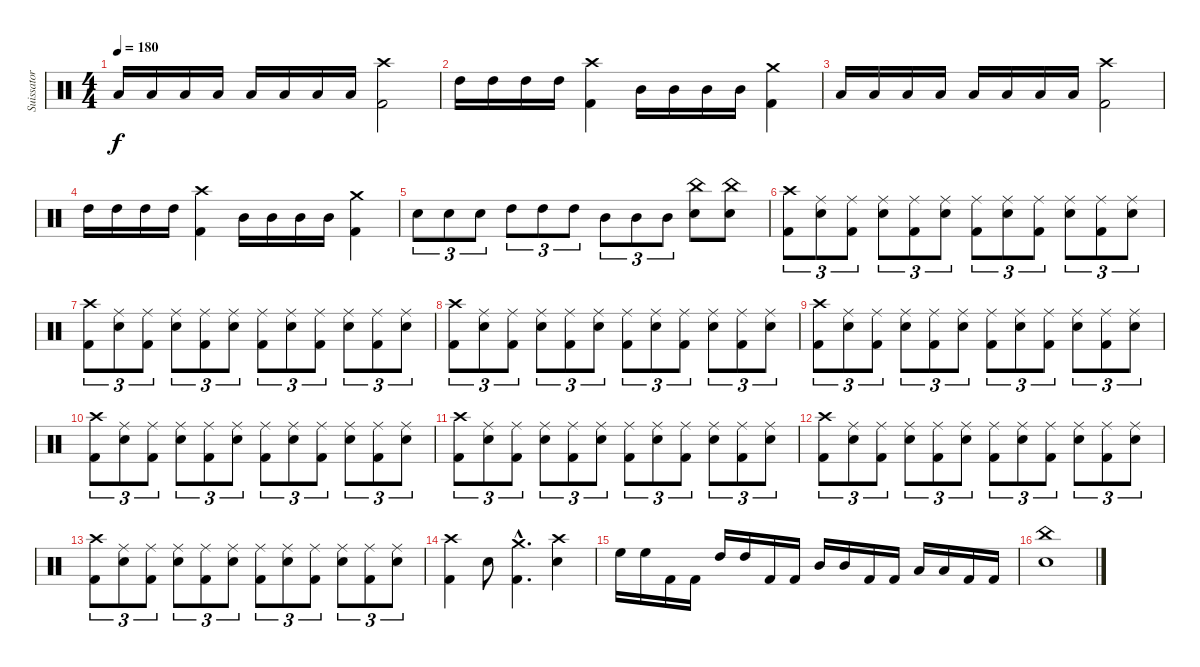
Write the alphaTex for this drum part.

\track ("Suissator" "Suissator") {instrument percussion}
\staff {score}
\articulation defaults
\ts (4 4)
\tempo 180
\clef neutral
\ks c "Low Tom (hit)".16{dy f} "Low Tom (hit)".16 "Low Tom (hit)".16 "Low Tom (hit)".16 "Low Tom (hit)".16 "Low Tom (hit)".16 "Low Tom (hit)".16 "Low Tom (hit)".16
("Kick (hit) 2" "Crash high (hit)").2 |
"High Tom (hit)".16 "High Tom (hit)".16 "High Tom (hit)".16 "High Tom (hit)".16 ("Kick (hit) 2" "Crash high (hit)").4 "Mid Tom (hit)".16 "Mid Tom (hit)".16 "Mid Tom (hit)".16 "Mid Tom (hit)".16 ("Kick (hit) 2" "Crash medium (hit)").4 |
"Low Tom (hit)".16 "Low Tom (hit)".16 "Low Tom (hit)".16 "Low Tom (hit)".16 "Low Tom (hit)".16 "Low Tom (hit)".16 "Low Tom (hit)".16 "Low Tom (hit)".16 ("Kick (hit) 2" "Crash high (hit)").2 |
"High Tom (hit)".16 "High Tom (hit)".16 "High Tom (hit)".16 "High Tom (hit)".16 ("Kick (hit) 2" "Crash high (hit)").4 "Mid Tom (hit)".16 "Mid Tom (hit)".16 "Mid Tom (hit)".16 "Mid Tom (hit)".16 ("Kick (hit) 2" "Crash medium (hit)").4 |
"Electric Snare (hit)".8{tu (3 2)} "Electric Snare (hit)".8{tu (3 2)} "Electric Snare (hit)".8{tu (3 2)} "High Tom (hit)".8{tu (3 2)} "High Tom (hit)".8{tu (3 2)} "High Tom (hit)".8{tu (3 2)} "Mid Tom (hit)".8{tu (3 2)} "Mid Tom (hit)".8{tu (3 2)} "Mid Tom (hit)".8{tu (3 2)} ("Electric Snare (hit)" "China (hit)").8 ("Electric Snare (hit)" "China (hit)").8 |
("Kick (hit) 2" "Crash high (hit)").8{tu (3 2)} ("Electric Snare (hit)" "Ride (middle)").8{tu (3 2)} ("Kick (hit) 2" "Ride (middle)").8{tu (3 2)} ("Electric Snare (hit)" "Ride (middle)").8{tu (3 2)} ("Kick (hit) 2" "Ride (middle)").8{tu (3 2)} ("Electric Snare (hit)" "Ride (middle)").8{tu (3 2)} ("Kick (hit) 2" "Ride (middle)").8{tu (3 2)} ("Electric Snare (hit)" "Ride (middle)").8{tu (3 2)} ("Kick (hit) 2" "Ride (middle)").8{tu (3 2)} ("Electric Snare (hit)" "Ride (middle)").8{tu (3 2)} ("Kick (hit) 2" "Ride (middle)").8{tu (3 2)} ("Electric Snare (hit)" "Ride (middle)").8{tu (3 2)} |
("Kick (hit) 2" "Crash high (hit)").8{tu (3 2)} ("Electric Snare (hit)" "Ride (middle)").8{tu (3 2)} ("Kick (hit) 2" "Ride (middle)").8{tu (3 2)} ("Electric Snare (hit)" "Ride (middle)").8{tu (3 2)} ("Kick (hit) 2" "Ride (middle)").8{tu (3 2)} ("Electric Snare (hit)" "Ride (middle)").8{tu (3 2)} ("Kick (hit) 2" "Ride (middle)").8{tu (3 2)} ("Electric Snare (hit)" "Ride (middle)").8{tu (3 2)} ("Kick (hit) 2" "Ride (middle)").8{tu (3 2)} ("Electric Snare (hit)" "Ride (middle)").8{tu (3 2)} ("Kick (hit) 2" "Ride (middle)").8{tu (3 2)} ("Electric Snare (hit)" "Ride (middle)").8{tu (3 2)} |
("Kick (hit) 2" "Crash high (hit)").8{tu (3 2)} ("Electric Snare (hit)" "Ride (middle)").8{tu (3 2)} ("Kick (hit) 2" "Ride (middle)").8{tu (3 2)} ("Electric Snare (hit)" "Ride (middle)").8{tu (3 2)} ("Kick (hit) 2" "Ride (middle)").8{tu (3 2)} ("Electric Snare (hit)" "Ride (middle)").8{tu (3 2)} ("Kick (hit) 2" "Ride (middle)").8{tu (3 2)} ("Electric Snare (hit)" "Ride (middle)").8{tu (3 2)} ("Kick (hit) 2" "Ride (middle)").8{tu (3 2)} ("Electric Snare (hit)" "Ride (middle)").8{tu (3 2)} ("Kick (hit) 2" "Ride (middle)").8{tu (3 2)} ("Electric Snare (hit)" "Ride (middle)").8{tu (3 2)} |
("Kick (hit) 2" "Crash high (hit)").8{tu (3 2)} ("Electric Snare (hit)" "Ride (middle)").8{tu (3 2)} ("Kick (hit) 2" "Ride (middle)").8{tu (3 2)} ("Electric Snare (hit)" "Ride (middle)").8{tu (3 2)} ("Kick (hit) 2" "Ride (middle)").8{tu (3 2)} ("Electric Snare (hit)" "Ride (middle)").8{tu (3 2)} ("Kick (hit) 2" "Ride (middle)").8{tu (3 2)} ("Electric Snare (hit)" "Ride (middle)").8{tu (3 2)} ("Kick (hit) 2" "Ride (middle)").8{tu (3 2)} ("Electric Snare (hit)" "Ride (middle)").8{tu (3 2)} ("Kick (hit) 2" "Ride (middle)").8{tu (3 2)} ("Electric Snare (hit)" "Ride (middle)").8{tu (3 2)} |
("Kick (hit) 2" "Crash high (hit)").8{tu (3 2)} ("Electric Snare (hit)" "Ride (middle)").8{tu (3 2)} ("Kick (hit) 2" "Ride (middle)").8{tu (3 2)} ("Electric Snare (hit)" "Ride (middle)").8{tu (3 2)} ("Kick (hit) 2" "Ride (middle)").8{tu (3 2)} ("Electric Snare (hit)" "Ride (middle)").8{tu (3 2)} ("Kick (hit) 2" "Ride (middle)").8{tu (3 2)} ("Electric Snare (hit)" "Ride (middle)").8{tu (3 2)} ("Kick (hit) 2" "Ride (middle)").8{tu (3 2)} ("Electric Snare (hit)" "Ride (middle)").8{tu (3 2)} ("Kick (hit) 2" "Ride (middle)").8{tu (3 2)} ("Electric Snare (hit)" "Ride (middle)").8{tu (3 2)} |
("Kick (hit) 2" "Crash high (hit)").8{tu (3 2)} ("Electric Snare (hit)" "Ride (middle)").8{tu (3 2)} ("Kick (hit) 2" "Ride (middle)").8{tu (3 2)} ("Electric Snare (hit)" "Ride (middle)").8{tu (3 2)} ("Kick (hit) 2" "Ride (middle)").8{tu (3 2)} ("Electric Snare (hit)" "Ride (middle)").8{tu (3 2)} ("Kick (hit) 2" "Ride (middle)").8{tu (3 2)} ("Electric Snare (hit)" "Ride (middle)").8{tu (3 2)} ("Kick (hit) 2" "Ride (middle)").8{tu (3 2)} ("Electric Snare (hit)" "Ride (middle)").8{tu (3 2)} ("Kick (hit) 2" "Ride (middle)").8{tu (3 2)} ("Electric Snare (hit)" "Ride (middle)").8{tu (3 2)} |
("Kick (hit) 2" "Crash high (hit)").8{tu (3 2)} ("Electric Snare (hit)" "Ride (middle)").8{tu (3 2)} ("Kick (hit) 2" "Ride (middle)").8{tu (3 2)} ("Electric Snare (hit)" "Ride (middle)").8{tu (3 2)} ("Kick (hit) 2" "Ride (middle)").8{tu (3 2)} ("Electric Snare (hit)" "Ride (middle)").8{tu (3 2)} ("Kick (hit) 2" "Ride (middle)").8{tu (3 2)} ("Electric Snare (hit)" "Ride (middle)").8{tu (3 2)} ("Kick (hit) 2" "Ride (middle)").8{tu (3 2)} ("Electric Snare (hit)" "Ride (middle)").8{tu (3 2)} ("Kick (hit) 2" "Ride (middle)").8{tu (3 2)} ("Electric Snare (hit)" "Ride (middle)").8{tu (3 2)} |
("Kick (hit) 2" "Crash high (hit)").8{tu (3 2)} ("Electric Snare (hit)" "Ride (middle)").8{tu (3 2)} ("Kick (hit) 2" "Ride (middle)").8{tu (3 2)} ("Electric Snare (hit)" "Ride (middle)").8{tu (3 2)} ("Kick (hit) 2" "Ride (middle)").8{tu (3 2)} ("Electric Snare (hit)" "Ride (middle)").8{tu (3 2)} ("Kick (hit) 2" "Ride (middle)").8{tu (3 2)} ("Electric Snare (hit)" "Ride (middle)").8{tu (3 2)} ("Kick (hit) 2" "Ride (middle)").8{tu (3 2)} ("Electric Snare (hit)" "Ride (middle)").8{tu (3 2)} ("Kick (hit) 2" "Ride (middle)").8{tu (3 2)} ("Electric Snare (hit)" "Ride (middle)").8{tu (3 2)} |
("Kick (hit) 2" "Crash high (hit)").4 "Electric Snare (hit)".8 ("Kick (hit) 2"{hac} "Crash medium (hit)"{hac}).4{d} ("Electric Snare (hit)" "Crash high (hit)").4 |
"High Floor Tom (hit)".16 "High Floor Tom (hit)".16 "Kick (hit) 2".16 "Kick (hit) 2".16 "High Tom (hit)".16 "High Tom (hit)".16 "Kick (hit) 2".16 "Kick (hit) 2".16 "Mid Tom (hit)".16 "Mid Tom (hit)".16 "Kick (hit) 2".16 "Kick (hit) 2".16 "Low Tom (hit)".16 "Low Tom (hit)".16 "Kick (hit) 2".16 "Kick (hit) 2".16 |
("Electric Snare (hit)" "China (hit)").1
